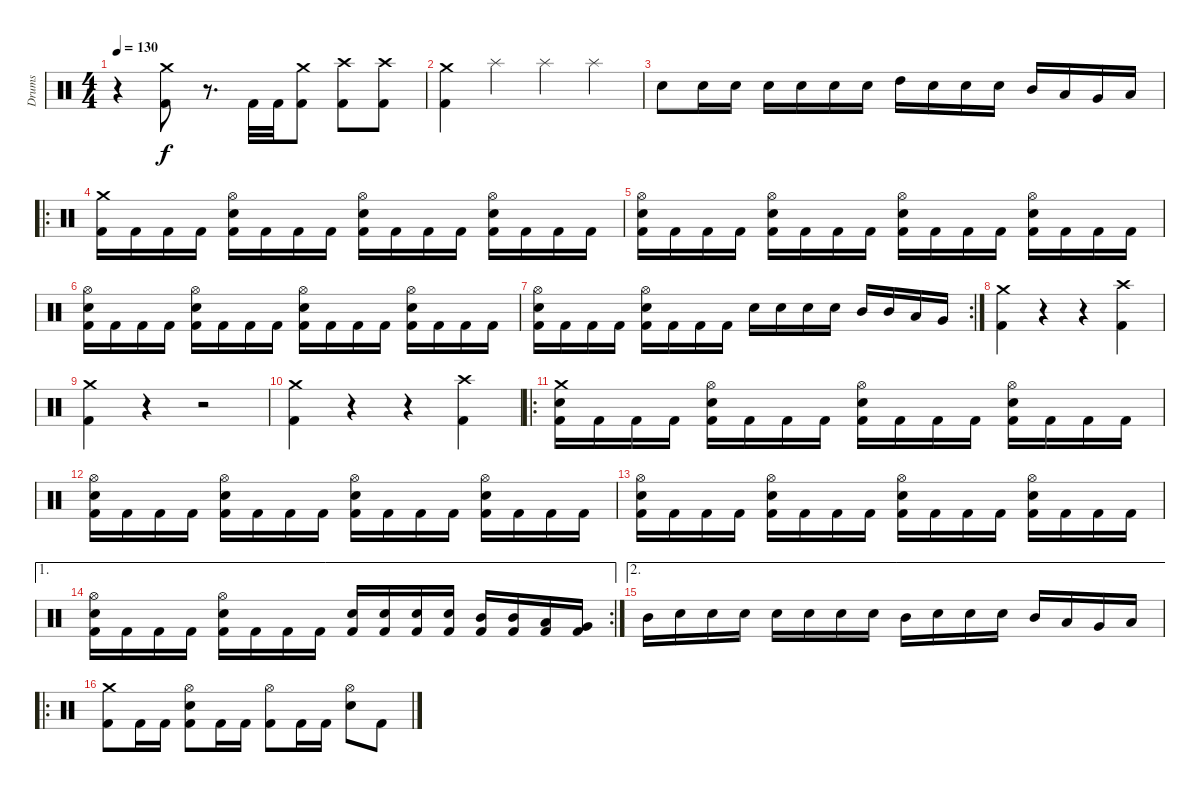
\track ("Drums" "Drums") {instrument percussion}
\staff {score}
\articulation defaults
\ts (4 4)
\tempo 130
\clef neutral
\ks c
r.4{dy f} ("Crash medium (hit)" "Kick (hit) 2").8 r.8{d} "Kick (hit) 2".32 "Kick (hit) 2".32 ("Crash medium (hit)" "Kick (hit) 2").8 ("Crash high (hit)" "Kick (hit) 2").8 ("Crash high (hit)" "Kick (hit) 2").8 |
("Crash medium (hit)" "Kick (hit) 2").4 "Splash (hit)".4 "Splash (hit)".4 "Splash (hit)".4 |
"Electric Snare (hit)".8 "Electric Snare (hit)".16 "Electric Snare (hit)".16 "Electric Snare (hit)".16 "Electric Snare (hit)".16 "Electric Snare (hit)".16 "Electric Snare (hit)".16 "High Tom (hit)".16 "Electric Snare (hit)".16 "Electric Snare (hit)".16 "Electric Snare (hit)".16 "Mid Tom (hit)".16 "Low Tom (hit)".16 "Very Low Tom (hit)".16 "Low Floor Tom (hit)".16 |
\ro
("Crash medium (hit)" "Kick (hit) 2").16 "Kick (hit) 2".16 "Kick (hit) 2".16 "Kick (hit) 2".16 ("Hi-Hat (open)" "Electric Snare (hit)" "Kick (hit) 2").16 "Kick (hit) 2".16 "Kick (hit) 2".16 "Kick (hit) 2".16 ("Hi-Hat (open)" "Electric Snare (hit)" "Kick (hit) 2").16 "Kick (hit) 2".16 "Kick (hit) 2".16 "Kick (hit) 2".16 ("Hi-Hat (open)" "Electric Snare (hit)" "Kick (hit) 2").16 "Kick (hit) 2".16 "Kick (hit) 2".16 "Kick (hit) 2".16 |
("Hi-Hat (open)" "Electric Snare (hit)" "Kick (hit) 2").16 "Kick (hit) 2".16 "Kick (hit) 2".16 "Kick (hit) 2".16 ("Hi-Hat (open)" "Electric Snare (hit)" "Kick (hit) 2").16 "Kick (hit) 2".16 "Kick (hit) 2".16 "Kick (hit) 2".16 ("Hi-Hat (open)" "Electric Snare (hit)" "Kick (hit) 2").16 "Kick (hit) 2".16 "Kick (hit) 2".16 "Kick (hit) 2".16 ("Hi-Hat (open)" "Electric Snare (hit)" "Kick (hit) 2").16 "Kick (hit) 2".16 "Kick (hit) 2".16 "Kick (hit) 2".16 |
("Hi-Hat (open)" "Electric Snare (hit)" "Kick (hit) 2").16 "Kick (hit) 2".16 "Kick (hit) 2".16 "Kick (hit) 2".16 ("Hi-Hat (open)" "Electric Snare (hit)" "Kick (hit) 2").16 "Kick (hit) 2".16 "Kick (hit) 2".16 "Kick (hit) 2".16 ("Hi-Hat (open)" "Electric Snare (hit)" "Kick (hit) 2").16 "Kick (hit) 2".16 "Kick (hit) 2".16 "Kick (hit) 2".16 ("Hi-Hat (open)" "Electric Snare (hit)" "Kick (hit) 2").16 "Kick (hit) 2".16 "Kick (hit) 2".16 "Kick (hit) 2".16 |
\rc 2
("Hi-Hat (open)" "Electric Snare (hit)" "Kick (hit) 2").16 "Kick (hit) 2".16 "Kick (hit) 2".16 "Kick (hit) 2".16 ("Hi-Hat (open)" "Electric Snare (hit)" "Kick (hit) 2").16 "Kick (hit) 2".16 "Kick (hit) 2".16 "Kick (hit) 2".16 "Electric Snare (hit)".16 "Electric Snare (hit)".16 "Electric Snare (hit)".16 "Electric Snare (hit)".16 "Mid Tom (hit)".16 "Mid Tom (hit)".16 "Low Tom (hit)".16 "Very Low Tom (hit)".16 |
("Crash medium (hit)" "Kick (hit) 2").4 r.4 r.4 ("Crash high (hit)" "Kick (hit) 2").4 |
("Crash medium (hit)" "Kick (hit) 2").4 r.4 r.2 |
("Crash medium (hit)" "Kick (hit) 2").4 r.4 r.4 ("Crash high (hit)" "Kick (hit) 2").4 |
\ro
("Crash medium (hit)" "Electric Snare (hit)" "Kick (hit) 2").16 "Kick (hit) 2".16 "Kick (hit) 2".16 "Kick (hit) 2".16 ("Hi-Hat (open)" "Electric Snare (hit)" "Kick (hit) 2").16 "Kick (hit) 2".16 "Kick (hit) 2".16 "Kick (hit) 2".16 ("Hi-Hat (open)" "Electric Snare (hit)" "Kick (hit) 2").16 "Kick (hit) 2".16 "Kick (hit) 2".16 "Kick (hit) 2".16 ("Hi-Hat (open)" "Electric Snare (hit)" "Kick (hit) 2").16 "Kick (hit) 2".16 "Kick (hit) 2".16 "Kick (hit) 2".16 |
("Hi-Hat (open)" "Electric Snare (hit)" "Kick (hit) 2").16 "Kick (hit) 2".16 "Kick (hit) 2".16 "Kick (hit) 2".16 ("Hi-Hat (open)" "Electric Snare (hit)" "Kick (hit) 2").16 "Kick (hit) 2".16 "Kick (hit) 2".16 "Kick (hit) 2".16 ("Hi-Hat (open)" "Electric Snare (hit)" "Kick (hit) 2").16 "Kick (hit) 2".16 "Kick (hit) 2".16 "Kick (hit) 2".16 ("Hi-Hat (open)" "Electric Snare (hit)" "Kick (hit) 2").16 "Kick (hit) 2".16 "Kick (hit) 2".16 "Kick (hit) 2".16 |
("Hi-Hat (open)" "Electric Snare (hit)" "Kick (hit) 2").16 "Kick (hit) 2".16 "Kick (hit) 2".16 "Kick (hit) 2".16 ("Hi-Hat (open)" "Electric Snare (hit)" "Kick (hit) 2").16 "Kick (hit) 2".16 "Kick (hit) 2".16 "Kick (hit) 2".16 ("Hi-Hat (open)" "Electric Snare (hit)" "Kick (hit) 2").16 "Kick (hit) 2".16 "Kick (hit) 2".16 "Kick (hit) 2".16 ("Hi-Hat (open)" "Electric Snare (hit)" "Kick (hit) 2").16 "Kick (hit) 2".16 "Kick (hit) 2".16 "Kick (hit) 2".16 |
\ae 1
\rc 2
("Hi-Hat (open)" "Electric Snare (hit)" "Kick (hit) 2").16 "Kick (hit) 2".16 "Kick (hit) 2".16 "Kick (hit) 2".16 ("Hi-Hat (open)" "Electric Snare (hit)" "Kick (hit) 2").16 "Kick (hit) 2".16 "Kick (hit) 2".16 "Kick (hit) 2".16 ("Electric Snare (hit)" "Kick (hit) 2").16 ("Electric Snare (hit)" "Kick (hit) 2").16 ("Electric Snare (hit)" "Kick (hit) 2").16 ("Electric Snare (hit)" "Kick (hit) 2").16 ("Mid Tom (hit)" "Kick (hit) 2").16 ("Mid Tom (hit)" "Kick (hit) 2").16 ("Low Tom (hit)" "Kick (hit) 2").16 ("Very Low Tom (hit)" "Kick (hit) 2").16 |
\ae 2 "Mid Tom (hit)".16 "Electric Snare (hit)".16 "Electric Snare (hit)".16 "Electric Snare (hit)".16 "Electric Snare (hit)".16 "Electric Snare (hit)".16 "Electric Snare (hit)".16 "Electric Snare (hit)".16 "Mid Tom (hit)".16 "Electric Snare (hit)".16 "Electric Snare (hit)".16 "Electric Snare (hit)".16 "Mid Tom (hit)".16 "Low Tom (hit)".16 "Very Low Tom (hit)".16 "Low Floor Tom (hit)".16
|
\ro
("Crash medium (hit)" "Kick (hit) 2").8 "Kick (hit) 2".16 "Kick (hit) 2".16 ("Hi-Hat (open)" "Electric Snare (hit)" "Kick (hit) 2").8 "Kick (hit) 2".16 "Kick (hit) 2".16 ("Hi-Hat (open)" "Kick (hit) 2").8 "Kick (hit) 2".16 "Kick (hit) 2".16 ("Hi-Hat (open)" "Electric Snare (hit)").8 "Kick (hit) 2".8
